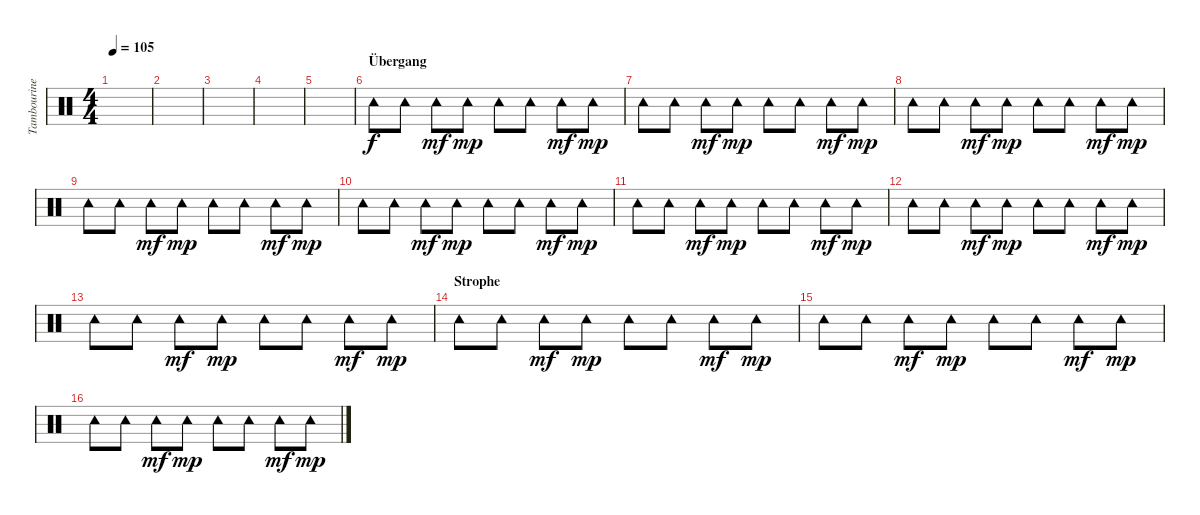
\track ("Tambourine" "Tambourine") {instrument percussion}
\staff {score}
\articulation defaults
\ts (4 4)
\tempo 105
\clef neutral
\ks c
|
|
|
|
|
\section ("" "Übergang")
"Tambourine (hit)".8{volume 13} "Tambourine (hit)".8 "Tambourine (hit)".8{dy mf} "Tambourine (hit)".8{dy mp} "Tambourine (hit)".8 "Tambourine (hit)".8 "Tambourine (hit)".8{dy mf} "Tambourine (hit)".8{dy mp} |
"Tambourine (hit)".8 "Tambourine (hit)".8 "Tambourine (hit)".8{dy mf} "Tambourine (hit)".8{dy mp} "Tambourine (hit)".8 "Tambourine (hit)".8 "Tambourine (hit)".8{dy mf} "Tambourine (hit)".8{dy mp} |
"Tambourine (hit)".8 "Tambourine (hit)".8 "Tambourine (hit)".8{dy mf} "Tambourine (hit)".8{dy mp} "Tambourine (hit)".8 "Tambourine (hit)".8 "Tambourine (hit)".8{dy mf} "Tambourine (hit)".8{dy mp} |
"Tambourine (hit)".8 "Tambourine (hit)".8 "Tambourine (hit)".8{dy mf} "Tambourine (hit)".8{dy mp} "Tambourine (hit)".8 "Tambourine (hit)".8 "Tambourine (hit)".8{dy mf} "Tambourine (hit)".8{dy mp} |
"Tambourine (hit)".8 "Tambourine (hit)".8 "Tambourine (hit)".8{dy mf} "Tambourine (hit)".8{dy mp} "Tambourine (hit)".8 "Tambourine (hit)".8 "Tambourine (hit)".8{dy mf} "Tambourine (hit)".8{dy mp} |
"Tambourine (hit)".8 "Tambourine (hit)".8 "Tambourine (hit)".8{dy mf} "Tambourine (hit)".8{dy mp} "Tambourine (hit)".8 "Tambourine (hit)".8 "Tambourine (hit)".8{dy mf} "Tambourine (hit)".8{dy mp} |
"Tambourine (hit)".8 "Tambourine (hit)".8 "Tambourine (hit)".8{dy mf} "Tambourine (hit)".8{dy mp} "Tambourine (hit)".8 "Tambourine (hit)".8 "Tambourine (hit)".8{dy mf} "Tambourine (hit)".8{dy mp} |
"Tambourine (hit)".8 "Tambourine (hit)".8 "Tambourine (hit)".8{dy mf} "Tambourine (hit)".8{dy mp} "Tambourine (hit)".8 "Tambourine (hit)".8 "Tambourine (hit)".8{dy mf} "Tambourine (hit)".8{dy mp} |
\section ("" "Strophe")
"Tambourine (hit)".8 "Tambourine (hit)".8 "Tambourine (hit)".8{dy mf} "Tambourine (hit)".8{dy mp} "Tambourine (hit)".8 "Tambourine (hit)".8 "Tambourine (hit)".8{dy mf} "Tambourine (hit)".8{dy mp} |
"Tambourine (hit)".8 "Tambourine (hit)".8 "Tambourine (hit)".8{dy mf} "Tambourine (hit)".8{dy mp} "Tambourine (hit)".8 "Tambourine (hit)".8 "Tambourine (hit)".8{dy mf} "Tambourine (hit)".8{dy mp} |
"Tambourine (hit)".8 "Tambourine (hit)".8 "Tambourine (hit)".8{dy mf} "Tambourine (hit)".8{dy mp} "Tambourine (hit)".8 "Tambourine (hit)".8 "Tambourine (hit)".8{dy mf} "Tambourine (hit)".8{dy mp}
